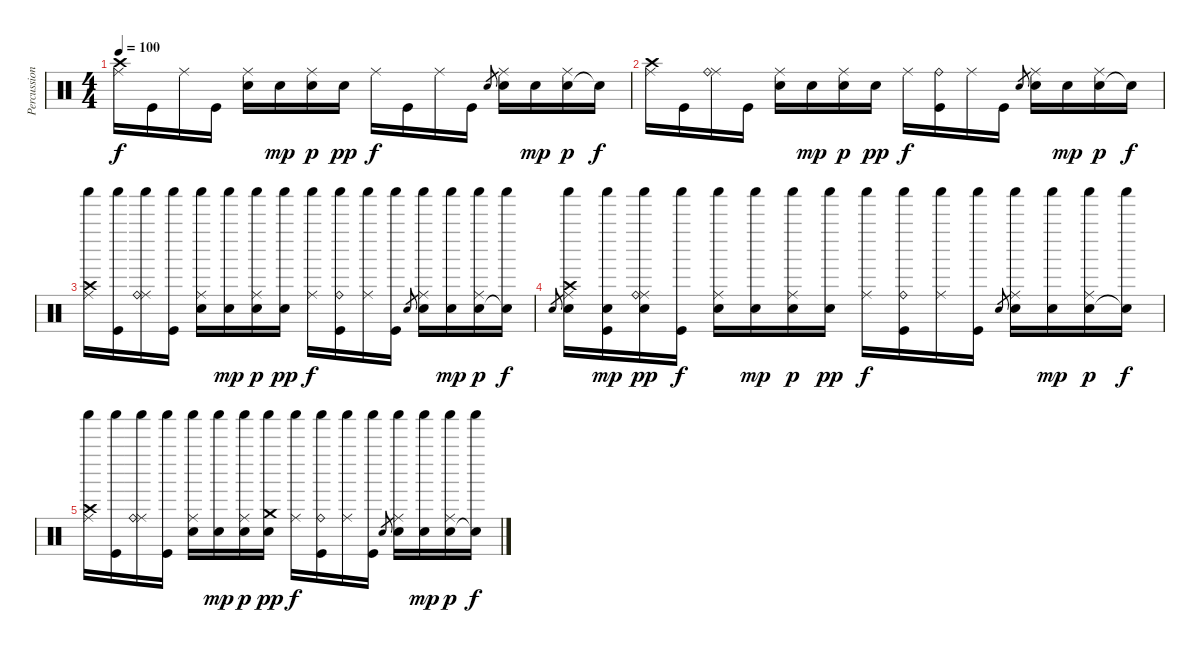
\track ("Percussions" "Percussion") {instrument percussion}
\staff {score}
\articulation defaults
\ts (4 4)
\tempo 100
\clef neutral
\ks c
("Ride (middle)" "Crash high (hit)").16{dy f} "Kick (hit)".16 "Ride (middle)".16 "Kick (hit)".16 ("Snare (hit) 2" "Ride (middle)").16 "Snare (hit) 2".16{dy mp} ("Snare (hit) 2" "Ride (middle)").16{dy p} "Snare (hit) 2".16{dy pp} "Ride (middle)".16{dy f} "Kick (hit)".16 "Ride (middle)".16 "Kick (hit)".16 "Snare (hit) 2".8{gr} ("Snare (hit) 2" "Ride (middle)").16 "Snare (hit) 2".16{dy mp} ("Snare (hit) 2" "Ride (middle)").16{dy p} "Snare (hit)"{t}.16{dy f} |
("Ride (middle)" "Crash high (hit)").16 "Kick (hit)".16 ("Ride (middle)" "Ride (bell)").16 "Kick (hit)".16 ("Snare (hit) 2" "Ride (middle)").16 "Snare (hit) 2".16{dy mp} ("Snare (hit) 2" "Ride (middle)").16{dy p} "Snare (hit) 2".16{dy pp} "Ride (middle)".16{dy f} ("Kick (hit)" "Ride (bell)").16 "Ride (middle)".16 "Kick (hit)".16 "Snare (hit) 2".8{gr} ("Snare (hit) 2" "Ride (middle)").16 "Snare (hit) 2".16{dy mp} ("Snare (hit) 2" "Ride (middle)").16{dy p} "Snare (hit)"{t}.16{dy f} |
("Ride (middle)" "Crash high (hit)" "Shaker (hit)").16 ("Kick (hit)" "Shaker (hit)").16 ("Ride (middle)" "Ride (bell)" "Shaker (hit)").16 ("Kick (hit)" "Shaker (hit)").16 ("Snare (hit) 2" "Ride (middle)" "Shaker (hit)").16 ("Snare (hit) 2" "Shaker (hit)").16{dy mp} ("Snare (hit) 2" "Ride (middle)" "Shaker (hit)").16{dy p} ("Snare (hit) 2" "Shaker (hit)").16{dy pp} ("Ride (middle)" "Shaker (hit)").16{dy f} ("Kick (hit)" "Ride (bell)" "Shaker (hit)").16 ("Ride (middle)" "Shaker (hit)").16 ("Kick (hit)" "Shaker (hit)").16 "Snare (hit) 2".8{gr} ("Snare (hit) 2" "Ride (middle)" "Shaker (hit)").16 ("Snare (hit) 2" "Shaker (hit)").16{dy mp} ("Snare (hit) 2" "Ride (middle)" "Shaker (hit)").16{dy p} ("Snare (hit)"{t} "Shaker (hit)").16{dy f} |
"Snare (hit) 2".8{gr} ("Ride (middle)" "Snare (hit) 2" "Crash high (hit)" "Shaker (hit)").16 ("Kick (hit)" "Snare (hit) 2" "Shaker (hit)").16{dy mp} ("Ride (middle)" "Ride (bell)" "Snare (hit) 2" "Shaker (hit)").16{dy pp} ("Kick (hit)" "Shaker (hit)").16{dy f} ("Snare (hit) 2" "Ride (middle)" "Shaker (hit)").16 ("Snare (hit) 2" "Shaker (hit)").16{dy mp} ("Snare (hit) 2" "Ride (middle)" "Shaker (hit)").16{dy p} ("Snare (hit) 2" "Shaker (hit)").16{dy pp} ("Ride (middle)" "Shaker (hit)").16{dy f} ("Kick (hit)" "Ride (bell)" "Shaker (hit)").16 ("Ride (middle)" "Shaker (hit)").16 ("Kick (hit)" "Shaker (hit)").16 "Snare (hit) 2".8{gr} ("Snare (hit) 2" "Ride (middle)" "Shaker (hit)").16 ("Snare (hit) 2" "Shaker (hit)").16{dy mp} ("Snare (hit) 2" "Ride (middle)" "Shaker (hit)").16{dy p} ("Snare (hit)"{t} "Shaker (hit)").16{dy f} |
("Ride (middle)" "Crash high (hit)" "Shaker (hit)").16 ("Kick (hit)" "Shaker (hit)").16 ("Ride (middle)" "Ride (bell)" "Shaker (hit)").16 ("Kick (hit)" "Shaker (hit)").16 ("Snare (hit) 2" "Ride (middle)" "Shaker (hit)").16 ("Snare (hit) 2" "Shaker (hit)").16{dy mp} ("Snare (hit) 2" "Ride (middle)" "Shaker (hit)").16{dy p} ("Snare (hit) 2" "Crash medium (hit)" "Shaker (hit)").16{dy pp} ("Ride (middle)" "Shaker (hit)").16{dy f} ("Kick (hit)" "Ride (bell)" "Shaker (hit)").16 ("Ride (middle)" "Shaker (hit)").16 ("Kick (hit)" "Shaker (hit)").16 "Snare (hit) 2".8{gr} ("Snare (hit) 2" "Ride (middle)" "Shaker (hit)").16 ("Snare (hit) 2" "Shaker (hit)").16{dy mp} ("Snare (hit) 2" "Ride (middle)" "Shaker (hit)").16{dy p} ("Snare (hit)"{t} "Shaker (hit)").16{dy f}
